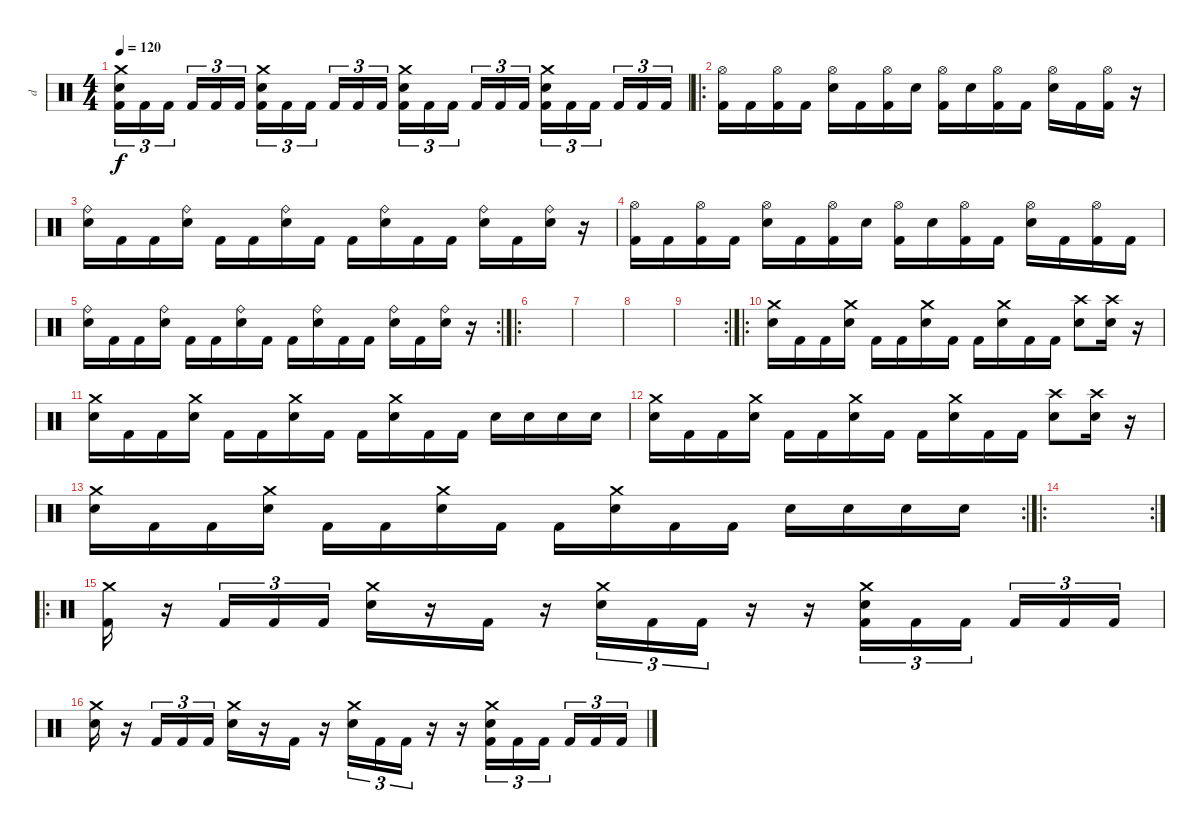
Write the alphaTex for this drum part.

\track ("d" "d") {instrument percussion}
\staff {score}
\articulation defaults
\ts (4 4)
\tempo 120
\clef neutral
\ks c
("Crash medium (hit)" "Electric Snare (hit)" "Kick (hit) 2").16{tu (3 2) dy f} "Kick (hit) 2".16{tu (3 2)} "Kick (hit) 2".16{tu (3 2)} "Kick (hit) 2".16{tu (3 2)} "Kick (hit) 2".16{tu (3 2)} "Kick (hit) 2".16{tu (3 2)} ("Crash medium (hit)" "Electric Snare (hit)" "Kick (hit) 2").16{tu (3 2)} "Kick (hit) 2".16{tu (3 2)} "Kick (hit) 2".16{tu (3 2)} "Kick (hit) 2".16{tu (3 2)} "Kick (hit) 2".16{tu (3 2)} "Kick (hit) 2".16{tu (3 2)} ("Crash medium (hit)" "Electric Snare (hit)" "Kick (hit) 2").16{tu (3 2)} "Kick (hit) 2".16{tu (3 2)} "Kick (hit) 2".16{tu (3 2)} "Kick (hit) 2".16{tu (3 2)} "Kick (hit) 2".16{tu (3 2)} "Kick (hit) 2".16{tu (3 2)} ("Crash medium (hit)" "Electric Snare (hit)" "Kick (hit) 2").16{tu (3 2)} "Kick (hit) 2".16{tu (3 2)} "Kick (hit) 2".16{tu (3 2)} "Kick (hit) 2".16{tu (3 2)} "Kick (hit) 2".16{tu (3 2)} "Kick (hit) 2".16{tu (3 2)} |
\ro
("Hi-Hat (open)" "Kick (hit) 2").16 "Kick (hit) 2".16 ("Hi-Hat (open)" "Kick (hit) 2").16 "Kick (hit) 2".16 ("Hi-Hat (open)" "Electric Snare (hit)").16 "Kick (hit) 2".16 ("Hi-Hat (open)" "Kick (hit) 2").16 "Electric Snare (hit)".16 ("Hi-Hat (open)" "Kick (hit) 2").16 "Electric Snare (hit)".16 ("Hi-Hat (open)" "Kick (hit) 2").16 "Kick (hit) 2".16 ("Hi-Hat (open)" "Electric Snare (hit)").16 "Kick (hit) 2".16 ("Hi-Hat (open)" "Kick (hit) 2").16 r.16 |
("Ride (bell)" "Electric Snare (hit)").16 "Kick (hit) 2".16 "Kick (hit) 2".16 ("Ride (bell)" "Electric Snare (hit)").16 "Kick (hit) 2".16 "Kick (hit) 2".16 ("Ride (bell)" "Electric Snare (hit)").16 "Kick (hit) 2".16 "Kick (hit) 2".16 ("Ride (bell)" "Electric Snare (hit)").16 "Kick (hit) 2".16 "Kick (hit) 2".16 ("Ride (bell)" "Electric Snare (hit)").16 "Kick (hit) 2".16 ("Ride (bell)" "Electric Snare (hit)").16 r.16 |
("Hi-Hat (open)" "Kick (hit) 2").16 "Kick (hit) 2".16 ("Hi-Hat (open)" "Kick (hit) 2").16 "Kick (hit) 2".16 ("Hi-Hat (open)" "Electric Snare (hit)").16 "Kick (hit) 2".16 ("Hi-Hat (open)" "Kick (hit) 2").16 "Electric Snare (hit)".16 ("Hi-Hat (open)" "Kick (hit) 2").16 "Electric Snare (hit)".16 ("Hi-Hat (open)" "Kick (hit) 2").16 "Kick (hit) 2".16 ("Hi-Hat (open)" "Electric Snare (hit)").16 "Kick (hit) 2".16 ("Hi-Hat (open)" "Kick (hit) 2").16 "Kick (hit) 2".16 |
\rc 2
("Ride (bell)" "Electric Snare (hit)").16 "Kick (hit) 2".16 "Kick (hit) 2".16 ("Ride (bell)" "Electric Snare (hit)").16 "Kick (hit) 2".16 "Kick (hit) 2".16 ("Ride (bell)" "Electric Snare (hit)").16 "Kick (hit) 2".16 "Kick (hit) 2".16 ("Ride (bell)" "Electric Snare (hit)").16 "Kick (hit) 2".16 "Kick (hit) 2".16 ("Ride (bell)" "Electric Snare (hit)").16 "Kick (hit) 2".16 ("Ride (bell)" "Electric Snare (hit)").16 r.16 |
\ro
|
|
|
\rc 2
|
\ro
("Crash medium (hit)" "Electric Snare (hit)").16 "Kick (hit) 2".16 "Kick (hit) 2".16 ("Crash medium (hit)" "Electric Snare (hit)").16 "Kick (hit) 2".16 "Kick (hit) 2".16 ("Crash medium (hit)" "Electric Snare (hit)").16 "Kick (hit) 2".16 "Kick (hit) 2".16 ("Crash medium (hit)" "Electric Snare (hit)").16 "Kick (hit) 2".16 "Kick (hit) 2".16 ("Crash high (hit)" "Electric Snare (hit)").8 ("Crash high (hit)" "Electric Snare (hit)").16 r.16 |
("Crash medium (hit)" "Electric Snare (hit)").16 "Kick (hit) 2".16 "Kick (hit) 2".16 ("Crash medium (hit)" "Electric Snare (hit)").16 "Kick (hit) 2".16 "Kick (hit) 2".16 ("Crash medium (hit)" "Electric Snare (hit)").16 "Kick (hit) 2".16 "Kick (hit) 2".16 ("Crash medium (hit)" "Electric Snare (hit)").16 "Kick (hit) 2".16 "Kick (hit) 2".16 "Electric Snare (hit)".16 "Electric Snare (hit)".16 "Electric Snare (hit)".16 "Electric Snare (hit)".16 |
("Crash medium (hit)" "Electric Snare (hit)").16 "Kick (hit) 2".16 "Kick (hit) 2".16 ("Crash medium (hit)" "Electric Snare (hit)").16 "Kick (hit) 2".16 "Kick (hit) 2".16 ("Crash medium (hit)" "Electric Snare (hit)").16 "Kick (hit) 2".16 "Kick (hit) 2".16 ("Crash medium (hit)" "Electric Snare (hit)").16 "Kick (hit) 2".16 "Kick (hit) 2".16 ("Crash high (hit)" "Electric Snare (hit)").8 ("Crash high (hit)" "Electric Snare (hit)").16 r.16 |
\rc 2
("Crash medium (hit)" "Electric Snare (hit)").16 "Kick (hit) 2".16 "Kick (hit) 2".16 ("Crash medium (hit)" "Electric Snare (hit)").16 "Kick (hit) 2".16 "Kick (hit) 2".16 ("Crash medium (hit)" "Electric Snare (hit)").16 "Kick (hit) 2".16 "Kick (hit) 2".16 ("Crash medium (hit)" "Electric Snare (hit)").16 "Kick (hit) 2".16 "Kick (hit) 2".16 "Electric Snare (hit)".16 "Electric Snare (hit)".16 "Electric Snare (hit)".16 "Electric Snare (hit)".16 |
\ro
\rc 2
|
\ro
("Kick (hit) 2" "Crash medium (hit)").16 r.16 "Kick (hit) 2".16{tu (3 2)} "Kick (hit) 2".16{tu (3 2)} "Kick (hit) 2".16{tu (3 2)} ("Electric Snare (hit)" "Crash medium (hit)").16 r.16 "Kick (hit) 2".16 r.16 ("Electric Snare (hit)" "Crash medium (hit)").16{tu (3 2)} "Kick (hit) 2".16{tu (3 2)} "Kick (hit) 2".16{tu (3 2)} r.16 r.16 ("Kick (hit) 2" "Electric Snare (hit)" "Crash medium (hit)").16{tu (3 2)} "Kick (hit) 2".16{tu (3 2)} "Kick (hit) 2".16{tu (3 2)} "Kick (hit) 2".16{tu (3 2)} "Kick (hit) 2".16{tu (3 2)} "Kick (hit) 2".16{tu (3 2)} |
("Electric Snare (hit)" "Crash medium (hit)").16 r.16 "Kick (hit) 2".16{tu (3 2)} "Kick (hit) 2".16{tu (3 2)} "Kick (hit) 2".16{tu (3 2)} ("Electric Snare (hit)" "Crash medium (hit)").16 r.16 "Kick (hit) 2".16 r.16 ("Electric Snare (hit)" "Crash medium (hit)").16{tu (3 2)} "Kick (hit) 2".16{tu (3 2)} "Kick (hit) 2".16{tu (3 2)} r.16 r.16 ("Kick (hit) 2" "Electric Snare (hit)" "Crash medium (hit)").16{tu (3 2)} "Kick (hit) 2".16{tu (3 2)} "Kick (hit) 2".16{tu (3 2)} "Kick (hit) 2".16{tu (3 2)} "Kick (hit) 2".16{tu (3 2)} "Kick (hit) 2".16{tu (3 2)}
